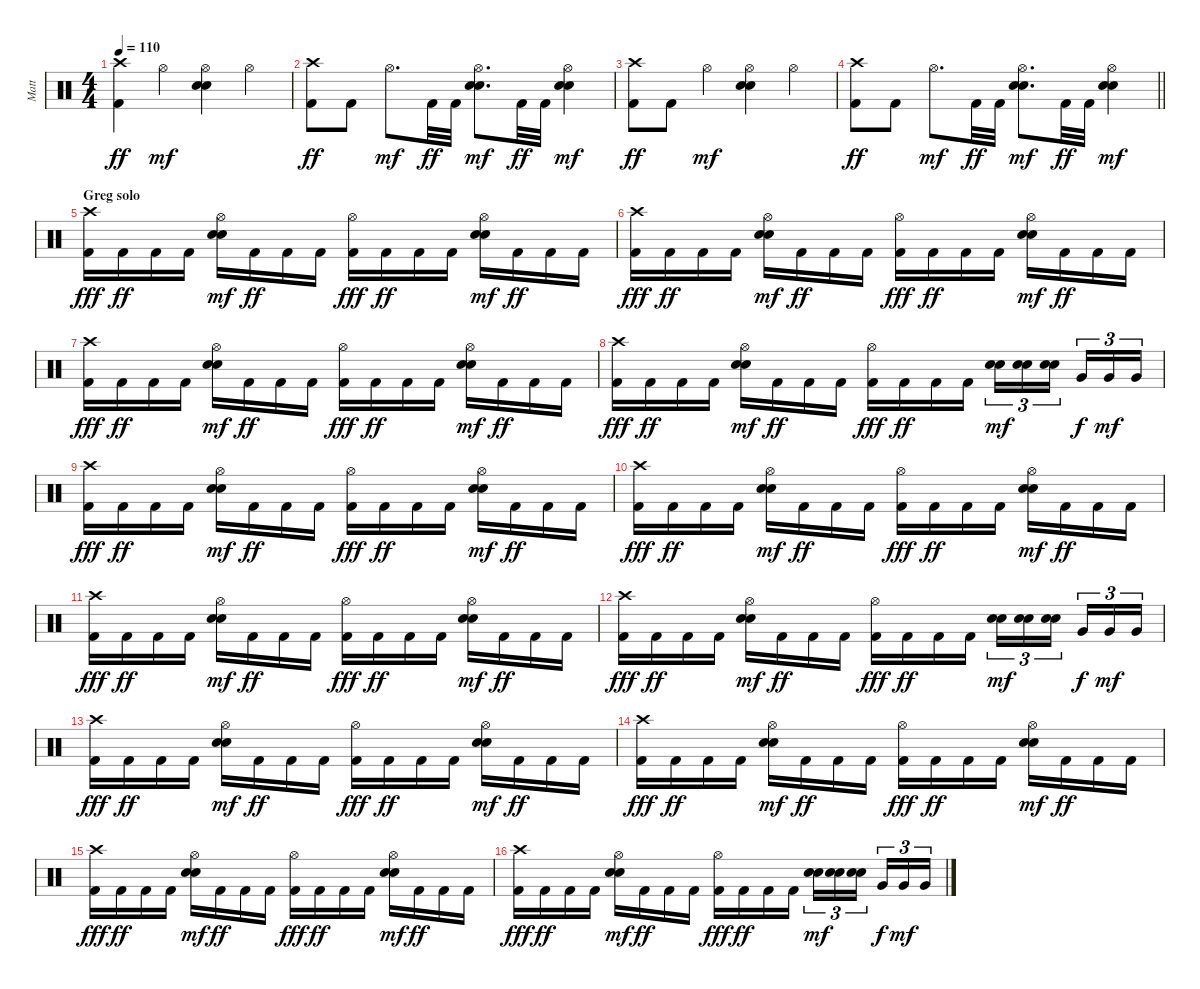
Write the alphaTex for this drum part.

\track ("Matt" "Matt") {instrument percussion}
\staff {score}
\articulation defaults
\ts (4 4)
\tempo 110
\clef neutral
\ks c
("Crash high (hit)" "Kick (hit) 2").4{dy ff} "Hi-Hat (open)".4{dy mf} ("Hi-Hat (open)" "Electric Snare (hit)" "Snare (hit) 2").4 "Hi-Hat (open)".4 |
("Crash high (hit)" "Kick (hit) 2").8{dy ff} "Kick (hit) 2".8 "Hi-Hat (open)".8{d dy mf} "Kick (hit) 2".32{dy ff} "Kick (hit) 2".32 ("Hi-Hat (open)" "Electric Snare (hit)" "Snare (hit) 2").8{d dy mf} "Kick (hit) 2".32{dy ff} "Kick (hit) 2".32 ("Hi-Hat (open)" "Electric Snare (hit)" "Snare (hit) 2").4{dy mf} |
("Crash high (hit)" "Kick (hit) 2").8{dy ff} "Kick (hit) 2".8 "Hi-Hat (open)".4{dy mf} ("Hi-Hat (open)" "Electric Snare (hit)" "Snare (hit) 2").4 "Hi-Hat (open)".4 |
\barLineRight lightlight
("Crash high (hit)" "Kick (hit) 2").8{dy ff} "Kick (hit) 2".8 "Hi-Hat (open)".8{d dy mf} "Kick (hit) 2".32{dy ff} "Kick (hit) 2".32 ("Hi-Hat (open)" "Electric Snare (hit)" "Snare (hit) 2").8{d dy mf} "Kick (hit) 2".32{dy ff} "Kick (hit) 2".32 ("Hi-Hat (open)" "Electric Snare (hit)" "Snare (hit) 2").4{dy mf} |
\section ("" "Greg solo")
("Crash high (hit)" "Kick (hit) 2").16{dy fff} "Kick (hit) 2".16{dy ff} "Kick (hit) 2".16 "Kick (hit) 2".16 ("Hi-Hat (open)" "Electric Snare (hit)" "Snare (hit) 2").16{dy mf} "Kick (hit) 2".16{dy ff} "Kick (hit) 2".16 "Kick (hit) 2".16 ("Hi-Hat (open)" "Kick (hit) 2").16{dy fff} "Kick (hit) 2".16{dy ff} "Kick (hit) 2".16 "Kick (hit) 2".16 ("Hi-Hat (open)" "Electric Snare (hit)" "Snare (hit) 2").16{dy mf} "Kick (hit) 2".16{dy ff} "Kick (hit) 2".16 "Kick (hit) 2".16 |
("Crash high (hit)" "Kick (hit) 2").16{dy fff} "Kick (hit) 2".16{dy ff} "Kick (hit) 2".16 "Kick (hit) 2".16 ("Hi-Hat (open)" "Electric Snare (hit)" "Snare (hit) 2").16{dy mf} "Kick (hit) 2".16{dy ff} "Kick (hit) 2".16 "Kick (hit) 2".16 ("Hi-Hat (open)" "Kick (hit) 2").16{dy fff} "Kick (hit) 2".16{dy ff} "Kick (hit) 2".16 "Kick (hit) 2".16 ("Hi-Hat (open)" "Electric Snare (hit)" "Snare (hit) 2").16{dy mf} "Kick (hit) 2".16{dy ff} "Kick (hit) 2".16 "Kick (hit) 2".16 |
("Crash high (hit)" "Kick (hit) 2").16{dy fff} "Kick (hit) 2".16{dy ff} "Kick (hit) 2".16 "Kick (hit) 2".16 ("Hi-Hat (open)" "Electric Snare (hit)" "Snare (hit) 2").16{dy mf} "Kick (hit) 2".16{dy ff} "Kick (hit) 2".16 "Kick (hit) 2".16 ("Hi-Hat (open)" "Kick (hit) 2").16{dy fff} "Kick (hit) 2".16{dy ff} "Kick (hit) 2".16 "Kick (hit) 2".16 ("Hi-Hat (open)" "Electric Snare (hit)" "Snare (hit) 2").16{dy mf} "Kick (hit) 2".16{dy ff} "Kick (hit) 2".16 "Kick (hit) 2".16 |
("Crash high (hit)" "Kick (hit) 2").16{dy fff} "Kick (hit) 2".16{dy ff} "Kick (hit) 2".16 "Kick (hit) 2".16 ("Hi-Hat (open)" "Electric Snare (hit)" "Snare (hit) 2").16{dy mf} "Kick (hit) 2".16{dy ff} "Kick (hit) 2".16 "Kick (hit) 2".16 ("Hi-Hat (open)" "Kick (hit) 2").16{dy fff} "Kick (hit) 2".16{dy ff} "Kick (hit) 2".16 "Kick (hit) 2".16 ("Electric Snare (hit)" "Snare (hit) 2").16{tu (3 2) dy mf} ("Electric Snare (hit)" "Snare (hit) 2").16{tu (3 2)} ("Electric Snare (hit)" "Snare (hit) 2").16{tu (3 2)} "Very Low Tom (hit)".16{tu (3 2) dy f} "Very Low Tom (hit)".16{tu (3 2) dy mf} "Very Low Tom (hit)".16{tu (3 2)} |
("Crash high (hit)" "Kick (hit) 2").16{dy fff} "Kick (hit) 2".16{dy ff} "Kick (hit) 2".16 "Kick (hit) 2".16 ("Hi-Hat (open)" "Electric Snare (hit)" "Snare (hit) 2").16{dy mf} "Kick (hit) 2".16{dy ff} "Kick (hit) 2".16 "Kick (hit) 2".16 ("Hi-Hat (open)" "Kick (hit) 2").16{dy fff} "Kick (hit) 2".16{dy ff} "Kick (hit) 2".16 "Kick (hit) 2".16 ("Hi-Hat (open)" "Electric Snare (hit)" "Snare (hit) 2").16{dy mf} "Kick (hit) 2".16{dy ff} "Kick (hit) 2".16 "Kick (hit) 2".16 |
("Crash high (hit)" "Kick (hit) 2").16{dy fff} "Kick (hit) 2".16{dy ff} "Kick (hit) 2".16 "Kick (hit) 2".16 ("Hi-Hat (open)" "Electric Snare (hit)" "Snare (hit) 2").16{dy mf} "Kick (hit) 2".16{dy ff} "Kick (hit) 2".16 "Kick (hit) 2".16 ("Hi-Hat (open)" "Kick (hit) 2").16{dy fff} "Kick (hit) 2".16{dy ff} "Kick (hit) 2".16 "Kick (hit) 2".16 ("Hi-Hat (open)" "Electric Snare (hit)" "Snare (hit) 2").16{dy mf} "Kick (hit) 2".16{dy ff} "Kick (hit) 2".16 "Kick (hit) 2".16 |
("Crash high (hit)" "Kick (hit) 2").16{dy fff} "Kick (hit) 2".16{dy ff} "Kick (hit) 2".16 "Kick (hit) 2".16 ("Hi-Hat (open)" "Electric Snare (hit)" "Snare (hit) 2").16{dy mf} "Kick (hit) 2".16{dy ff} "Kick (hit) 2".16 "Kick (hit) 2".16 ("Hi-Hat (open)" "Kick (hit) 2").16{dy fff} "Kick (hit) 2".16{dy ff} "Kick (hit) 2".16 "Kick (hit) 2".16 ("Hi-Hat (open)" "Electric Snare (hit)" "Snare (hit) 2").16{dy mf} "Kick (hit) 2".16{dy ff} "Kick (hit) 2".16 "Kick (hit) 2".16 |
("Crash high (hit)" "Kick (hit) 2").16{dy fff} "Kick (hit) 2".16{dy ff} "Kick (hit) 2".16 "Kick (hit) 2".16 ("Hi-Hat (open)" "Electric Snare (hit)" "Snare (hit) 2").16{dy mf} "Kick (hit) 2".16{dy ff} "Kick (hit) 2".16 "Kick (hit) 2".16 ("Hi-Hat (open)" "Kick (hit) 2").16{dy fff} "Kick (hit) 2".16{dy ff} "Kick (hit) 2".16 "Kick (hit) 2".16 ("Electric Snare (hit)" "Snare (hit) 2").16{tu (3 2) dy mf} ("Electric Snare (hit)" "Snare (hit) 2").16{tu (3 2)} ("Electric Snare (hit)" "Snare (hit) 2").16{tu (3 2)} "Very Low Tom (hit)".16{tu (3 2) dy f} "Very Low Tom (hit)".16{tu (3 2) dy mf} "Very Low Tom (hit)".16{tu (3 2)} |
("Crash high (hit)" "Kick (hit) 2").16{dy fff} "Kick (hit) 2".16{dy ff} "Kick (hit) 2".16 "Kick (hit) 2".16 ("Hi-Hat (open)" "Electric Snare (hit)" "Snare (hit) 2").16{dy mf} "Kick (hit) 2".16{dy ff} "Kick (hit) 2".16 "Kick (hit) 2".16 ("Hi-Hat (open)" "Kick (hit) 2").16{dy fff} "Kick (hit) 2".16{dy ff} "Kick (hit) 2".16 "Kick (hit) 2".16 ("Hi-Hat (open)" "Electric Snare (hit)" "Snare (hit) 2").16{dy mf} "Kick (hit) 2".16{dy ff} "Kick (hit) 2".16 "Kick (hit) 2".16 |
("Crash high (hit)" "Kick (hit) 2").16{dy fff} "Kick (hit) 2".16{dy ff} "Kick (hit) 2".16 "Kick (hit) 2".16 ("Hi-Hat (open)" "Electric Snare (hit)" "Snare (hit) 2").16{dy mf} "Kick (hit) 2".16{dy ff} "Kick (hit) 2".16 "Kick (hit) 2".16 ("Hi-Hat (open)" "Kick (hit) 2").16{dy fff} "Kick (hit) 2".16{dy ff} "Kick (hit) 2".16 "Kick (hit) 2".16 ("Hi-Hat (open)" "Electric Snare (hit)" "Snare (hit) 2").16{dy mf} "Kick (hit) 2".16{dy ff} "Kick (hit) 2".16 "Kick (hit) 2".16 |
("Crash high (hit)" "Kick (hit) 2").16{dy fff} "Kick (hit) 2".16{dy ff} "Kick (hit) 2".16 "Kick (hit) 2".16 ("Hi-Hat (open)" "Electric Snare (hit)" "Snare (hit) 2").16{dy mf} "Kick (hit) 2".16{dy ff} "Kick (hit) 2".16 "Kick (hit) 2".16 ("Hi-Hat (open)" "Kick (hit) 2").16{dy fff} "Kick (hit) 2".16{dy ff} "Kick (hit) 2".16 "Kick (hit) 2".16 ("Hi-Hat (open)" "Electric Snare (hit)" "Snare (hit) 2").16{dy mf} "Kick (hit) 2".16{dy ff} "Kick (hit) 2".16 "Kick (hit) 2".16 |
("Crash high (hit)" "Kick (hit) 2").16{dy fff} "Kick (hit) 2".16{dy ff} "Kick (hit) 2".16 "Kick (hit) 2".16 ("Hi-Hat (open)" "Electric Snare (hit)" "Snare (hit) 2").16{dy mf} "Kick (hit) 2".16{dy ff} "Kick (hit) 2".16 "Kick (hit) 2".16 ("Hi-Hat (open)" "Kick (hit) 2").16{dy fff} "Kick (hit) 2".16{dy ff} "Kick (hit) 2".16 "Kick (hit) 2".16 ("Electric Snare (hit)" "Snare (hit) 2").16{tu (3 2) dy mf} ("Electric Snare (hit)" "Snare (hit) 2").16{tu (3 2)} ("Electric Snare (hit)" "Snare (hit) 2").16{tu (3 2)} "Very Low Tom (hit)".16{tu (3 2) dy f} "Very Low Tom (hit)".16{tu (3 2) dy mf} "Very Low Tom (hit)".16{tu (3 2)}
